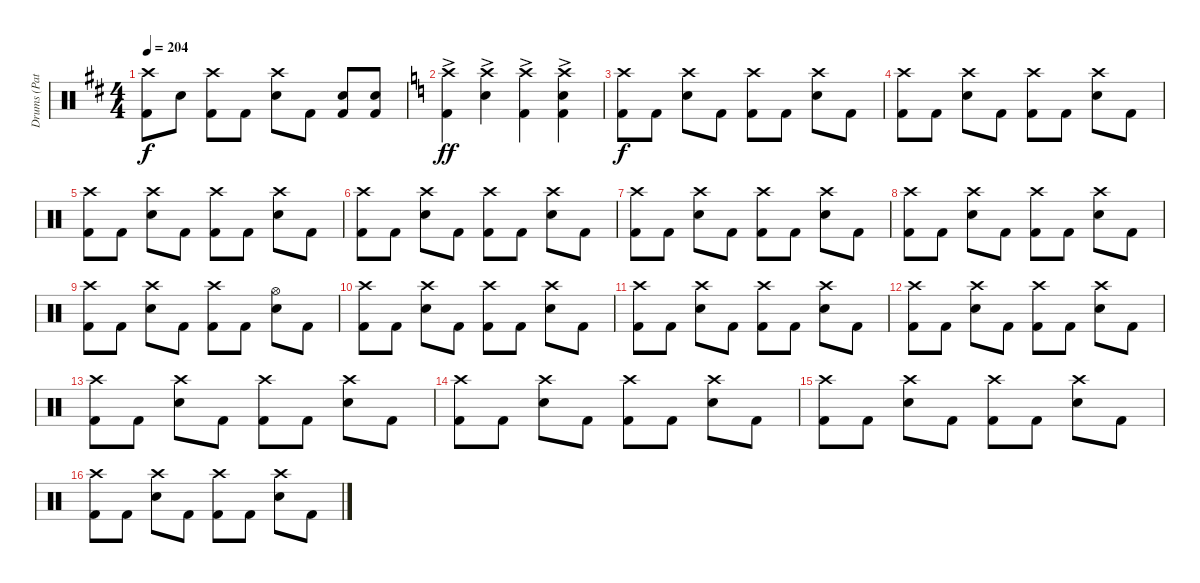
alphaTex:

\track ("Drums (Patrick Johansson)" "Drums (Pat") {instrument percussion}
\staff {score}
\articulation defaults
\ts (4 4)
\tempo 204
\clef neutral
\ks d
("Crash high (hit)" "Kick (hit) 2").8{dy f} "Electric Snare (hit)".8 ("Crash high (hit)" "Kick (hit) 2").8 "Kick (hit) 2".8 ("Crash high (hit)" "Electric Snare (hit)").8 "Kick (hit) 2".8 ("Electric Snare (hit)" "Kick (hit) 2").8 ("Electric Snare (hit)" "Kick (hit) 2").8 |
\ks c
("Crash high (hit)"{ac} "Kick (hit) 2").4{dy ff} ("Crash high (hit)"{ac} "Electric Snare (hit)").4 ("Crash high (hit)"{ac} "Kick (hit) 2").4 ("Crash high (hit)"{ac} "Electric Snare (hit)" "Kick (hit) 2").4 |
("Crash high (hit)" "Kick (hit) 2").8{dy f} "Kick (hit) 2".8 ("Crash high (hit)" "Electric Snare (hit)").8 "Kick (hit) 2".8 ("Crash high (hit)" "Kick (hit) 2").8 "Kick (hit) 2".8 ("Crash high (hit)" "Electric Snare (hit)").8 "Kick (hit) 2".8 |
("Crash high (hit)" "Kick (hit) 2").8 "Kick (hit) 2".8 ("Crash high (hit)" "Electric Snare (hit)").8 "Kick (hit) 2".8 ("Crash high (hit)" "Kick (hit) 2").8 "Kick (hit) 2".8 ("Crash high (hit)" "Electric Snare (hit)").8 "Kick (hit) 2".8 |
("Crash high (hit)" "Kick (hit) 2").8 "Kick (hit) 2".8 ("Crash high (hit)" "Electric Snare (hit)").8 "Kick (hit) 2".8 ("Crash high (hit)" "Kick (hit) 2").8 "Kick (hit) 2".8 ("Crash high (hit)" "Electric Snare (hit)").8 "Kick (hit) 2".8 |
("Crash high (hit)" "Kick (hit) 2").8 "Kick (hit) 2".8 ("Crash high (hit)" "Electric Snare (hit)").8 "Kick (hit) 2".8 ("Crash high (hit)" "Kick (hit) 2").8 "Kick (hit) 2".8 ("Crash high (hit)" "Electric Snare (hit)").8 "Kick (hit) 2".8 |
("Crash high (hit)" "Kick (hit) 2").8 "Kick (hit) 2".8 ("Crash high (hit)" "Electric Snare (hit)").8 "Kick (hit) 2".8 ("Crash high (hit)" "Kick (hit) 2").8 "Kick (hit) 2".8 ("Crash high (hit)" "Electric Snare (hit)").8 "Kick (hit) 2".8 |
("Crash high (hit)" "Kick (hit) 2").8 "Kick (hit) 2".8 ("Crash high (hit)" "Electric Snare (hit)").8 "Kick (hit) 2".8 ("Crash high (hit)" "Kick (hit) 2").8 "Kick (hit) 2".8 ("Crash high (hit)" "Electric Snare (hit)").8 "Kick (hit) 2".8 |
("Crash high (hit)" "Kick (hit) 2").8 "Kick (hit) 2".8 ("Crash high (hit)" "Electric Snare (hit)").8 "Kick (hit) 2".8 ("Crash high (hit)" "Kick (hit) 2").8 "Kick (hit) 2".8 ("Electric Snare (hit)" "Hi-Hat (open)").8 "Kick (hit) 2".8 |
("Crash high (hit)" "Kick (hit) 2").8 "Kick (hit) 2".8 ("Crash high (hit)" "Electric Snare (hit)").8 "Kick (hit) 2".8 ("Crash high (hit)" "Kick (hit) 2").8 "Kick (hit) 2".8 ("Crash high (hit)" "Electric Snare (hit)").8 "Kick (hit) 2".8 |
("Crash high (hit)" "Kick (hit) 2").8 "Kick (hit) 2".8 ("Crash high (hit)" "Electric Snare (hit)").8 "Kick (hit) 2".8 ("Crash high (hit)" "Kick (hit) 2").8 "Kick (hit) 2".8 ("Crash high (hit)" "Electric Snare (hit)").8 "Kick (hit) 2".8 |
("Crash high (hit)" "Kick (hit) 2").8 "Kick (hit) 2".8 ("Crash high (hit)" "Electric Snare (hit)").8 "Kick (hit) 2".8 ("Crash high (hit)" "Kick (hit) 2").8 "Kick (hit) 2".8 ("Crash high (hit)" "Electric Snare (hit)").8 "Kick (hit) 2".8 |
("Crash high (hit)" "Kick (hit) 2").8 "Kick (hit) 2".8 ("Crash high (hit)" "Electric Snare (hit)").8 "Kick (hit) 2".8 ("Crash high (hit)" "Kick (hit) 2").8 "Kick (hit) 2".8 ("Crash high (hit)" "Electric Snare (hit)").8 "Kick (hit) 2".8 |
("Crash high (hit)" "Kick (hit) 2").8 "Kick (hit) 2".8 ("Crash high (hit)" "Electric Snare (hit)").8 "Kick (hit) 2".8 ("Crash high (hit)" "Kick (hit) 2").8 "Kick (hit) 2".8 ("Crash high (hit)" "Electric Snare (hit)").8 "Kick (hit) 2".8 |
("Crash high (hit)" "Kick (hit) 2").8 "Kick (hit) 2".8 ("Crash high (hit)" "Electric Snare (hit)").8 "Kick (hit) 2".8 ("Crash high (hit)" "Kick (hit) 2").8 "Kick (hit) 2".8 ("Crash high (hit)" "Electric Snare (hit)").8 "Kick (hit) 2".8 |
("Crash high (hit)" "Kick (hit) 2").8 "Kick (hit) 2".8 ("Crash high (hit)" "Electric Snare (hit)").8 "Kick (hit) 2".8 ("Crash high (hit)" "Kick (hit) 2").8 "Kick (hit) 2".8 ("Crash high (hit)" "Electric Snare (hit)").8 "Kick (hit) 2".8
